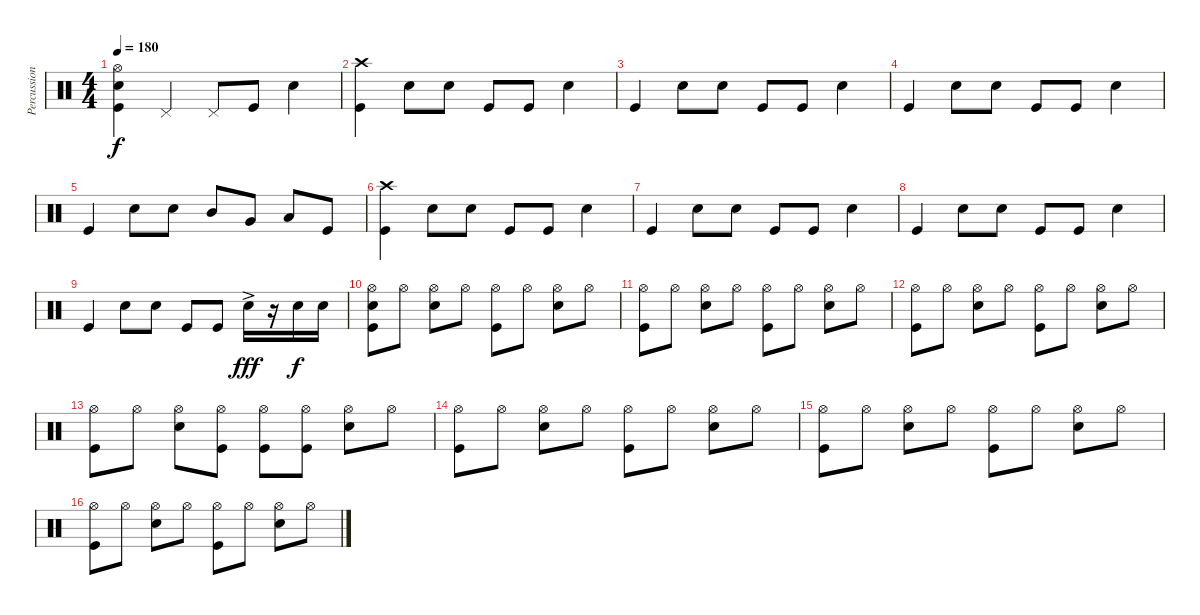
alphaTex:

\track ("Percussion" "Percussion") {instrument percussion}
\staff {score}
\articulation defaults
\ts (4 4)
\tempo 180
\clef neutral
\ks c
("Hi-Hat (open)" "Snare (hit) 2" "Kick (hit)").4{dy f} "Pedal Hi-Hat (hit)".4 "Pedal Hi-Hat (hit)".8 "Kick (hit)".8 "Snare (hit) 2".4 |
("Crash high (hit)" "Kick (hit)").4 "Snare (hit) 2".8 "Snare (hit) 2".8 "Kick (hit)".8 "Kick (hit)".8 "Snare (hit) 2".4 |
"Kick (hit)".4 "Snare (hit) 2".8 "Snare (hit) 2".8 "Kick (hit)".8 "Kick (hit)".8 "Snare (hit) 2".4 |
"Kick (hit)".4 "Snare (hit) 2".8 "Snare (hit) 2".8 "Kick (hit)".8 "Kick (hit)".8 "Snare (hit) 2".4 |
"Kick (hit)".4 "Snare (hit) 2".8 "Snare (hit) 2".8 "Mid Tom (hit)".8 "Very Low Tom (hit)".8 "Low Tom (hit)".8 "Kick (hit)".8 |
("Crash high (hit)" "Kick (hit)").4 "Snare (hit) 2".8 "Snare (hit) 2".8 "Kick (hit)".8 "Kick (hit)".8 "Snare (hit) 2".4 |
"Kick (hit)".4 "Snare (hit) 2".8 "Snare (hit) 2".8 "Kick (hit)".8 "Kick (hit)".8 "Snare (hit) 2".4 |
"Kick (hit)".4 "Snare (hit) 2".8 "Snare (hit) 2".8 "Kick (hit)".8 "Kick (hit)".8 "Snare (hit) 2".4 |
"Kick (hit)".4 "Snare (hit) 2".8 "Snare (hit) 2".8 "Kick (hit)".8 "Kick (hit)".8 "Snare (hit) 2"{ac}.16{dy fff} r.16 "Snare (hit) 2".16{dy f} "Snare (hit) 2".16 |
("Hi-Hat (open)" "Snare (hit) 2" "Kick (hit)").8 "Hi-Hat (open)".8 ("Hi-Hat (open)" "Snare (hit) 2").8 "Hi-Hat (open)".8 ("Hi-Hat (open)" "Kick (hit)").8 "Hi-Hat (open)".8 ("Hi-Hat (open)" "Snare (hit) 2").8 "Hi-Hat (open)".8 |
("Hi-Hat (open)" "Kick (hit)").8 "Hi-Hat (open)".8 ("Hi-Hat (open)" "Snare (hit) 2").8 "Hi-Hat (open)".8 ("Hi-Hat (open)" "Kick (hit)").8 "Hi-Hat (open)".8 ("Hi-Hat (open)" "Snare (hit) 2").8 "Hi-Hat (open)".8 |
("Hi-Hat (open)" "Kick (hit)").8 "Hi-Hat (open)".8 ("Hi-Hat (open)" "Snare (hit) 2").8 "Hi-Hat (open)".8 ("Hi-Hat (open)" "Kick (hit)").8 "Hi-Hat (open)".8 ("Hi-Hat (open)" "Snare (hit) 2").8 "Hi-Hat (open)".8 |
("Hi-Hat (open)" "Kick (hit)").8 "Hi-Hat (open)".8 ("Hi-Hat (open)" "Snare (hit) 2").8 ("Hi-Hat (open)" "Kick (hit)").8 ("Hi-Hat (open)" "Kick (hit)").8 ("Hi-Hat (open)" "Kick (hit)").8 ("Hi-Hat (open)" "Snare (hit) 2").8 "Hi-Hat (open)".8 |
("Hi-Hat (open)" "Kick (hit)").8 "Hi-Hat (open)".8 ("Hi-Hat (open)" "Snare (hit) 2").8 "Hi-Hat (open)".8 ("Hi-Hat (open)" "Kick (hit)").8 "Hi-Hat (open)".8 ("Hi-Hat (open)" "Snare (hit) 2").8 "Hi-Hat (open)".8 |
("Hi-Hat (open)" "Kick (hit)").8 "Hi-Hat (open)".8 ("Hi-Hat (open)" "Snare (hit) 2").8 "Hi-Hat (open)".8 ("Hi-Hat (open)" "Kick (hit)").8 "Hi-Hat (open)".8 ("Hi-Hat (open)" "Snare (hit) 2").8 "Hi-Hat (open)".8 |
("Hi-Hat (open)" "Kick (hit)").8 "Hi-Hat (open)".8 ("Hi-Hat (open)" "Snare (hit) 2").8 "Hi-Hat (open)".8 ("Hi-Hat (open)" "Kick (hit)").8 "Hi-Hat (open)".8 ("Hi-Hat (open)" "Snare (hit) 2").8 "Hi-Hat (open)".8
